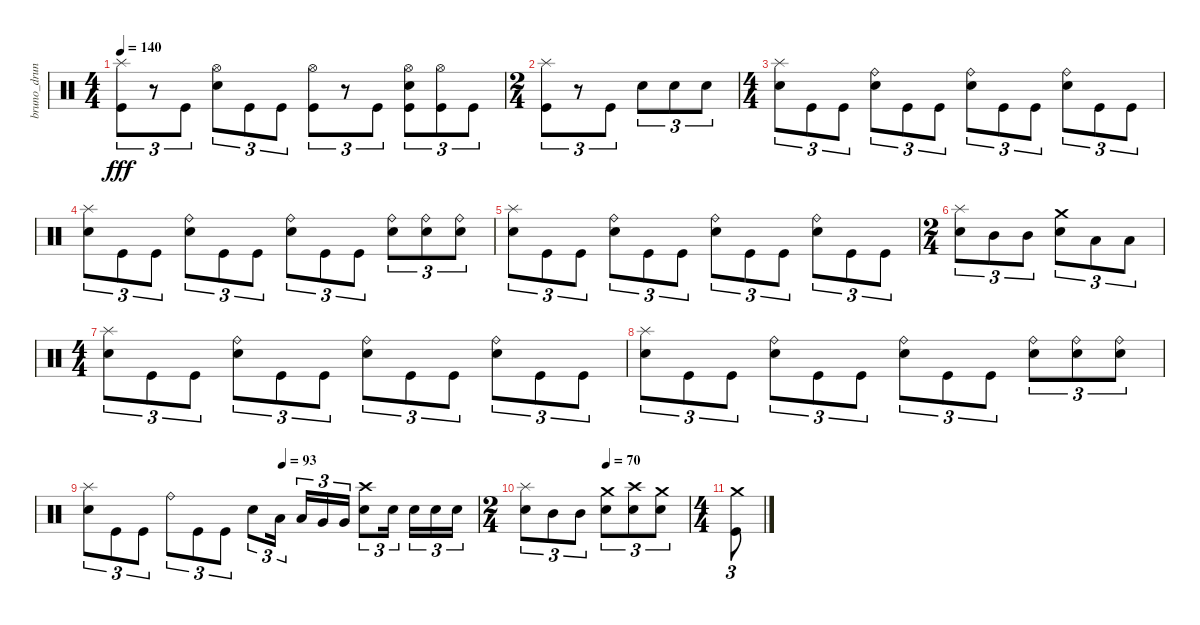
\track ("bruno_druns" "bruno_drun") {instrument percussion}
\staff {score}
\articulation defaults
\ts (4 4)
\tempo 140
\clef neutral
\ks c
("Kick (hit)" "Splash (hit)").8{tu (3 2) dy fff} r.8{tu (3 2)} "Kick (hit)".8{tu (3 2)} ("Electric Snare (hit)" "Hi-Hat (open)").8{tu (3 2)} "Kick (hit)".8{tu (3 2)} "Kick (hit)".8{tu (3 2)} ("Kick (hit)" "Hi-Hat (open)").8{tu (3 2)} r.8{tu (3 2)} "Kick (hit)".8{tu (3 2)} ("Kick (hit)" "Electric Snare (hit)" "Hi-Hat (open)").8{tu (3 2)} ("Kick (hit)" "Hi-Hat (open)").8{tu (3 2)} "Kick (hit)".8{tu (3 2)} |
\ts (2 4)
("Kick (hit)" "Splash (hit)").8{tu (3 2)} r.8{tu (3 2)} "Kick (hit)".8{tu (3 2)} "Electric Snare (hit)".8{tu (3 2)} "Electric Snare (hit)".8{tu (3 2)} "Electric Snare (hit)".8{tu (3 2)} |
\ts (4 4)
("Electric Snare (hit)" "Splash (hit)").8{tu (3 2)} "Kick (hit)".8{tu (3 2)} "Kick (hit)".8{tu (3 2)} ("Electric Snare (hit)" "Ride (bell)").8{tu (3 2)} "Kick (hit)".8{tu (3 2)} "Kick (hit)".8{tu (3 2)} ("Electric Snare (hit)" "Ride (bell)").8{tu (3 2)} "Kick (hit)".8{tu (3 2)} "Kick (hit)".8{tu (3 2)} ("Electric Snare (hit)" "Ride (bell)").8{tu (3 2)} "Kick (hit)".8{tu (3 2)} "Kick (hit)".8{tu (3 2)} |
("Electric Snare (hit)" "Splash (hit)").8{tu (3 2)} "Kick (hit)".8{tu (3 2)} "Kick (hit)".8{tu (3 2)} ("Electric Snare (hit)" "Ride (bell)").8{tu (3 2)} "Kick (hit)".8{tu (3 2)} "Kick (hit)".8{tu (3 2)} ("Electric Snare (hit)" "Ride (bell)").8{tu (3 2)} "Kick (hit)".8{tu (3 2)} "Kick (hit)".8{tu (3 2)} ("Electric Snare (hit)" "Ride (bell)").8{tu (3 2)} ("Electric Snare (hit)" "Ride (bell)").8{tu (3 2)} ("Electric Snare (hit)" "Ride (bell)").8{tu (3 2)} |
("Electric Snare (hit)" "Splash (hit)").8{tu (3 2)} "Kick (hit)".8{tu (3 2)} "Kick (hit)".8{tu (3 2)} ("Electric Snare (hit)" "Ride (bell)").8{tu (3 2)} "Kick (hit)".8{tu (3 2)} "Kick (hit)".8{tu (3 2)} ("Electric Snare (hit)" "Ride (bell)").8{tu (3 2)} "Kick (hit)".8{tu (3 2)} "Kick (hit)".8{tu (3 2)} ("Electric Snare (hit)" "Ride (bell)").8{tu (3 2)} "Kick (hit)".8{tu (3 2)} "Kick (hit)".8{tu (3 2)} |
\ts (2 4)
("Electric Snare (hit)" "Splash (hit)").8{tu (3 2)} "Mid Tom (hit)".8{tu (3 2)} "Mid Tom (hit)".8{tu (3 2)} ("Electric Snare (hit)" "Crash medium (hit)").8{tu (3 2)} "Low Tom (hit)".8{tu (3 2)} "Low Tom (hit)".8{tu (3 2)} |
\ts (4 4)
("Electric Snare (hit)" "Splash (hit)").8{tu (3 2)} "Kick (hit)".8{tu (3 2)} "Kick (hit)".8{tu (3 2)} ("Electric Snare (hit)" "Ride (bell)").8{tu (3 2)} "Kick (hit)".8{tu (3 2)} "Kick (hit)".8{tu (3 2)} ("Electric Snare (hit)" "Ride (bell)").8{tu (3 2)} "Kick (hit)".8{tu (3 2)} "Kick (hit)".8{tu (3 2)} ("Electric Snare (hit)" "Ride (bell)").8{tu (3 2)} "Kick (hit)".8{tu (3 2)} "Kick (hit)".8{tu (3 2)} |
("Electric Snare (hit)" "Splash (hit)").8{tu (3 2)} "Kick (hit)".8{tu (3 2)} "Kick (hit)".8{tu (3 2)} ("Electric Snare (hit)" "Ride (bell)").8{tu (3 2)} "Kick (hit)".8{tu (3 2)} "Kick (hit)".8{tu (3 2)} ("Electric Snare (hit)" "Ride (bell)").8{tu (3 2)} "Kick (hit)".8{tu (3 2)} "Kick (hit)".8{tu (3 2)} ("Electric Snare (hit)" "Ride (bell)").8{tu (3 2)} ("Electric Snare (hit)" "Ride (bell)").8{tu (3 2)} ("Electric Snare (hit)" "Ride (bell)").8{tu (3 2)} |
\tempo (93 0.5)
("Electric Snare (hit)" "Splash (hit)").8{tu (3 2)} "Kick (hit)".8{tu (3 2)} "Kick (hit)".8{tu (3 2)} "Ride (bell)".8{tu (3 2)} "Kick (hit)".8{tu (3 2)} "Kick (hit)".8{tu (3 2)} "Electric Snare (hit)".8{tu (3 2)} "Low Tom (hit)".16{tu (3 2)} "Low Tom (hit)".16{tu (3 2)} "Very Low Tom (hit)".16{tu (3 2)} "Very Low Tom (hit)".16{tu (3 2)} ("Electric Snare (hit)" "Crash high (hit)").8{tu (3 2)} "Electric Snare (hit)".16{tu (3 2)} "Electric Snare (hit)".16{tu (3 2)} "Electric Snare (hit)".16{tu (3 2)} "Electric Snare (hit)".16{tu (3 2)} |
\ts (2 4)
\tempo (70 0.5)
("Electric Snare (hit)" "Splash (hit)").8{tu (3 2)} "Mid Tom (hit)".8{tu (3 2)} "Mid Tom (hit)".8{tu (3 2)} ("Electric Snare (hit)" "Crash medium (hit)").8{tu (3 2)} ("Electric Snare (hit)" "Crash high (hit)").8{tu (3 2)} ("Electric Snare (hit)" "Crash medium (hit)").8{tu (3 2)} |
\ts (4 4)
("Kick (hit)" "Crash medium (hit)").8{tu (3 2)}
